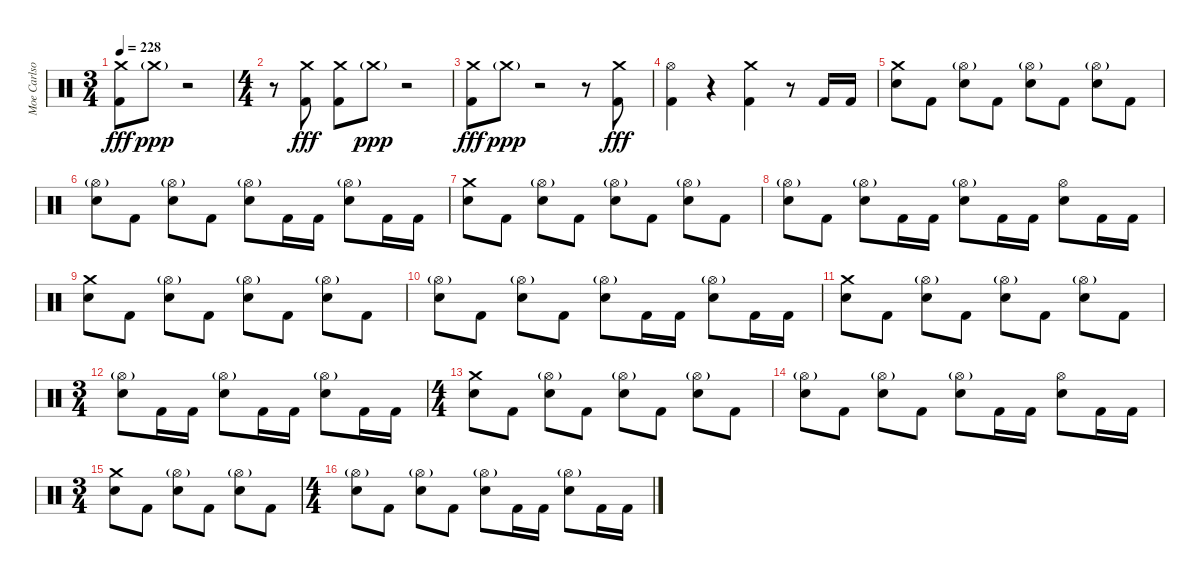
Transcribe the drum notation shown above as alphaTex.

\track ("Moe Carlson" "Moe Carlso") {instrument percussion}
\staff {score}
\articulation defaults
\ts (3 4)
\tempo 228
\clef neutral
\ks c
("Crash medium (hit)" "Kick (hit) 2").8{dy fff} "Crash medium (hit)"{g}.8{dy ppp} r.2 |
\ts (4 4)
r.8 ("Crash medium (hit)" "Kick (hit) 2").8{dy fff} ("Crash medium (hit)" "Kick (hit) 2").8 "Crash medium (hit)"{g}.8{dy ppp} r.2 |
("Crash medium (hit)" "Kick (hit) 2").8{dy fff} "Crash medium (hit)"{g}.8{dy ppp} r.2 r.8 ("Crash medium (hit)" "Kick (hit) 2").8{dy fff} |
("Hi-Hat (open)" "Kick (hit) 2").4 r.4 ("Crash medium (hit)" "Kick (hit) 2").4 r.8 "Kick (hit) 2".16 "Kick (hit) 2".16 |
("Crash medium (hit)" "Electric Snare (hit)").8 "Kick (hit) 2".8 ("Hi-Hat (open)"{g} "Electric Snare (hit)").8 "Kick (hit) 2".8 ("Hi-Hat (open)"{g} "Electric Snare (hit)").8 "Kick (hit) 2".8 ("Hi-Hat (open)"{g} "Electric Snare (hit)").8 "Kick (hit) 2".8 |
("Hi-Hat (open)"{g} "Electric Snare (hit)").8 "Kick (hit) 2".8 ("Hi-Hat (open)"{g} "Electric Snare (hit)").8 "Kick (hit) 2".8 ("Hi-Hat (open)"{g} "Electric Snare (hit)").8 "Kick (hit) 2".16 "Kick (hit) 2".16 ("Hi-Hat (open)"{g} "Electric Snare (hit)").8 "Kick (hit) 2".16 "Kick (hit) 2".16 |
("Crash medium (hit)" "Electric Snare (hit)").8 "Kick (hit) 2".8 ("Hi-Hat (open)"{g} "Electric Snare (hit)").8 "Kick (hit) 2".8 ("Hi-Hat (open)"{g} "Electric Snare (hit)").8 "Kick (hit) 2".8 ("Hi-Hat (open)"{g} "Electric Snare (hit)").8 "Kick (hit) 2".8 |
("Hi-Hat (open)"{g} "Electric Snare (hit)").8 "Kick (hit) 2".8 ("Hi-Hat (open)"{g} "Electric Snare (hit)").8 "Kick (hit) 2".16 "Kick (hit) 2".16 ("Hi-Hat (open)"{g} "Electric Snare (hit)").8 "Kick (hit) 2".16 "Kick (hit) 2".16 ("Hi-Hat (open)" "Electric Snare (hit)").8 "Kick (hit) 2".16 "Kick (hit) 2".16 |
("Crash medium (hit)" "Electric Snare (hit)").8 "Kick (hit) 2".8 ("Hi-Hat (open)"{g} "Electric Snare (hit)").8 "Kick (hit) 2".8 ("Hi-Hat (open)"{g} "Electric Snare (hit)").8 "Kick (hit) 2".8 ("Hi-Hat (open)"{g} "Electric Snare (hit)").8 "Kick (hit) 2".8 |
("Hi-Hat (open)"{g} "Electric Snare (hit)").8 "Kick (hit) 2".8 ("Hi-Hat (open)"{g} "Electric Snare (hit)").8 "Kick (hit) 2".8 ("Hi-Hat (open)"{g} "Electric Snare (hit)").8 "Kick (hit) 2".16 "Kick (hit) 2".16 ("Hi-Hat (open)"{g} "Electric Snare (hit)").8 "Kick (hit) 2".16 "Kick (hit) 2".16 |
("Crash medium (hit)" "Electric Snare (hit)").8 "Kick (hit) 2".8 ("Hi-Hat (open)"{g} "Electric Snare (hit)").8 "Kick (hit) 2".8 ("Hi-Hat (open)"{g} "Electric Snare (hit)").8 "Kick (hit) 2".8 ("Hi-Hat (open)"{g} "Electric Snare (hit)").8 "Kick (hit) 2".8 |
\ts (3 4)
("Hi-Hat (open)"{g} "Electric Snare (hit)").8 "Kick (hit) 2".16 "Kick (hit) 2".16 ("Hi-Hat (open)"{g} "Electric Snare (hit)").8 "Kick (hit) 2".16 "Kick (hit) 2".16 ("Hi-Hat (open)"{g} "Electric Snare (hit)").8 "Kick (hit) 2".16 "Kick (hit) 2".16 |
\ts (4 4)
("Crash medium (hit)" "Electric Snare (hit)").8 "Kick (hit) 2".8 ("Hi-Hat (open)"{g} "Electric Snare (hit)").8 "Kick (hit) 2".8 ("Hi-Hat (open)"{g} "Electric Snare (hit)").8 "Kick (hit) 2".8 ("Hi-Hat (open)"{g} "Electric Snare (hit)").8 "Kick (hit) 2".8 |
("Hi-Hat (open)"{g} "Electric Snare (hit)").8 "Kick (hit) 2".8 ("Hi-Hat (open)"{g} "Electric Snare (hit)").8 "Kick (hit) 2".8 ("Hi-Hat (open)"{g} "Electric Snare (hit)").8 "Kick (hit) 2".16 "Kick (hit) 2".16 ("Hi-Hat (open)" "Electric Snare (hit)").8 "Kick (hit) 2".16 "Kick (hit) 2".16 |
\ts (3 4)
("Crash medium (hit)" "Electric Snare (hit)").8 "Kick (hit) 2".8 ("Hi-Hat (open)"{g} "Electric Snare (hit)").8 "Kick (hit) 2".8 ("Hi-Hat (open)"{g} "Electric Snare (hit)").8 "Kick (hit) 2".8 |
\ts (4 4)
("Hi-Hat (open)"{g} "Electric Snare (hit)").8 "Kick (hit) 2".8 ("Hi-Hat (open)"{g} "Electric Snare (hit)").8 "Kick (hit) 2".8 ("Hi-Hat (open)"{g} "Electric Snare (hit)").8 "Kick (hit) 2".16 "Kick (hit) 2".16 ("Hi-Hat (open)"{g} "Electric Snare (hit)").8 "Kick (hit) 2".16 "Kick (hit) 2".16
